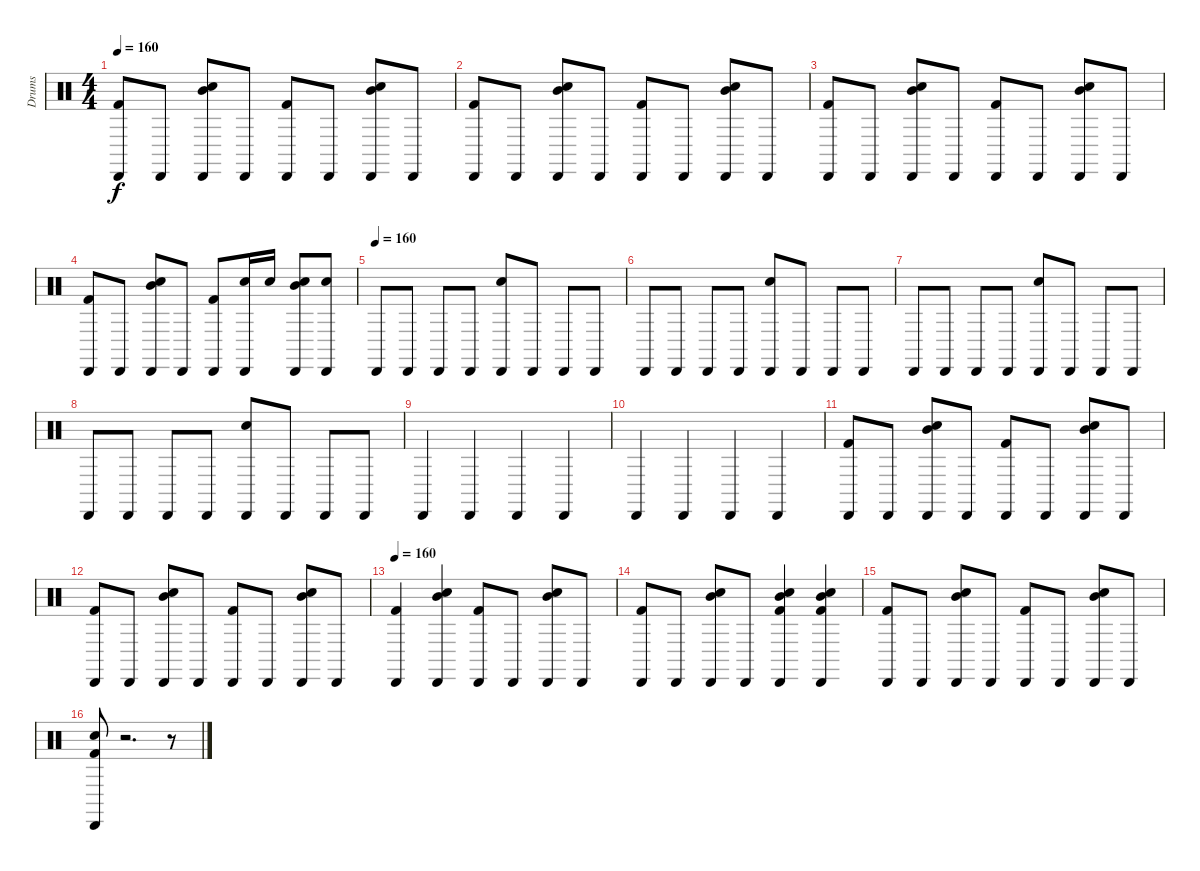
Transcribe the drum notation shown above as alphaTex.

\track ("Drums" "Drums") {instrument percussion}
\staff {score}
\articulation defaults
\ts (4 4)
\tempo 160
\clef neutral
\ks c
("Kick (hit) 2" "Cabasa (hit)").8{dy f} "Cabasa (hit)".8 ("Electric Snare (hit)" "Mid Tom (hit)" "Cabasa (hit)").8 "Cabasa (hit)".8 ("Cabasa (hit)" "Kick (hit) 2").8 "Cabasa (hit)".8 ("Cabasa (hit)" "Electric Snare (hit)" "Mid Tom (hit)").8 "Cabasa (hit)".8 |
("Cabasa (hit)" "Kick (hit) 2").8 "Cabasa (hit)".8 ("Electric Snare (hit)" "Cabasa (hit)" "Mid Tom (hit)").8 "Cabasa (hit)".8 ("Cabasa (hit)" "Kick (hit) 2").8 "Cabasa (hit)".8 ("Mid Tom (hit)" "Electric Snare (hit)" "Cabasa (hit)").8 "Cabasa (hit)".8 |
("Kick (hit) 2" "Cabasa (hit)").8 "Cabasa (hit)".8 ("Electric Snare (hit)" "Mid Tom (hit)" "Cabasa (hit)").8 "Cabasa (hit)".8 ("Cabasa (hit)" "Kick (hit) 2").8 "Cabasa (hit)".8 ("Cabasa (hit)" "Electric Snare (hit)" "Mid Tom (hit)").8 "Cabasa (hit)".8 |
("Cabasa (hit)" "Kick (hit) 2").8 "Cabasa (hit)".8 ("Electric Snare (hit)" "Cabasa (hit)" "Mid Tom (hit)").8 "Cabasa (hit)".8 ("Cabasa (hit)" "Kick (hit) 2").8 ("Electric Snare (hit)" "Cabasa (hit)").16 "Electric Snare (hit)".16 ("Electric Snare (hit)" "Mid Tom (hit)" "Cabasa (hit)").8 ("Electric Snare (hit)" "Cabasa (hit)").8 |
\tempo (160)
"Cabasa (hit)".8 "Cabasa (hit)".8 "Cabasa (hit)".8 "Cabasa (hit)".8 ("Electric Snare (hit)" "Cabasa (hit)").8 "Cabasa (hit)".8 "Cabasa (hit)".8 "Cabasa (hit)".8 |
"Cabasa (hit)".8 "Cabasa (hit)".8 "Cabasa (hit)".8 "Cabasa (hit)".8 ("Electric Snare (hit)" "Cabasa (hit)").8 "Cabasa (hit)".8 "Cabasa (hit)".8 "Cabasa (hit)".8 |
"Cabasa (hit)".8 "Cabasa (hit)".8 "Cabasa (hit)".8 "Cabasa (hit)".8 ("Electric Snare (hit)" "Cabasa (hit)").8 "Cabasa (hit)".8 "Cabasa (hit)".8 "Cabasa (hit)".8 |
"Cabasa (hit)".8 "Cabasa (hit)".8 "Cabasa (hit)".8 "Cabasa (hit)".8 ("Electric Snare (hit)" "Cabasa (hit)").8 "Cabasa (hit)".8 "Cabasa (hit)".8 "Cabasa (hit)".8 |
"Cabasa (hit)".4 "Cabasa (hit)".4 "Cabasa (hit)".4 "Cabasa (hit)".4 |
"Cabasa (hit)".4 "Cabasa (hit)".4 "Cabasa (hit)".4 "Cabasa (hit)".4 |
("Cabasa (hit)" "Kick (hit) 2").8 "Cabasa (hit)".8 ("Electric Snare (hit)" "Cabasa (hit)" "Mid Tom (hit)").8 "Cabasa (hit)".8 ("Cabasa (hit)" "Kick (hit) 2").8 "Cabasa (hit)".8 ("Mid Tom (hit)" "Electric Snare (hit)" "Cabasa (hit)").8 "Cabasa (hit)".8 |
("Kick (hit) 2" "Cabasa (hit)").8 "Cabasa (hit)".8 ("Electric Snare (hit)" "Mid Tom (hit)" "Cabasa (hit)").8 "Cabasa (hit)".8 ("Cabasa (hit)" "Kick (hit) 2").8 "Cabasa (hit)".8 ("Cabasa (hit)" "Electric Snare (hit)" "Mid Tom (hit)").8 "Cabasa (hit)".8 |
\tempo 160
("Cabasa (hit)" "Kick (hit) 2").4 ("Electric Snare (hit)" "Cabasa (hit)" "Mid Tom (hit)").4 ("Cabasa (hit)" "Kick (hit) 2").8 "Cabasa (hit)".8 ("Mid Tom (hit)" "Electric Snare (hit)" "Cabasa (hit)").8 "Cabasa (hit)".8 |
("Kick (hit) 2" "Cabasa (hit)").8 "Cabasa (hit)".8 ("Electric Snare (hit)" "Mid Tom (hit)" "Cabasa (hit)").8 "Cabasa (hit)".8 ("Mid Tom (hit)" "Electric Snare (hit)" "Cabasa (hit)" "Kick (hit) 2").4 ("Kick (hit) 2" "Cabasa (hit)" "Electric Snare (hit)" "Mid Tom (hit)").4 |
("Cabasa (hit)" "Kick (hit) 2").8 "Cabasa (hit)".8 ("Electric Snare (hit)" "Cabasa (hit)" "Mid Tom (hit)").8 "Cabasa (hit)".8 ("Cabasa (hit)" "Kick (hit) 2").8 "Cabasa (hit)".8 ("Mid Tom (hit)" "Electric Snare (hit)" "Cabasa (hit)").8 "Cabasa (hit)".8 |
("Kick (hit) 2" "Electric Snare (hit)" "Cabasa (hit)").8 r.2{d} r.8
